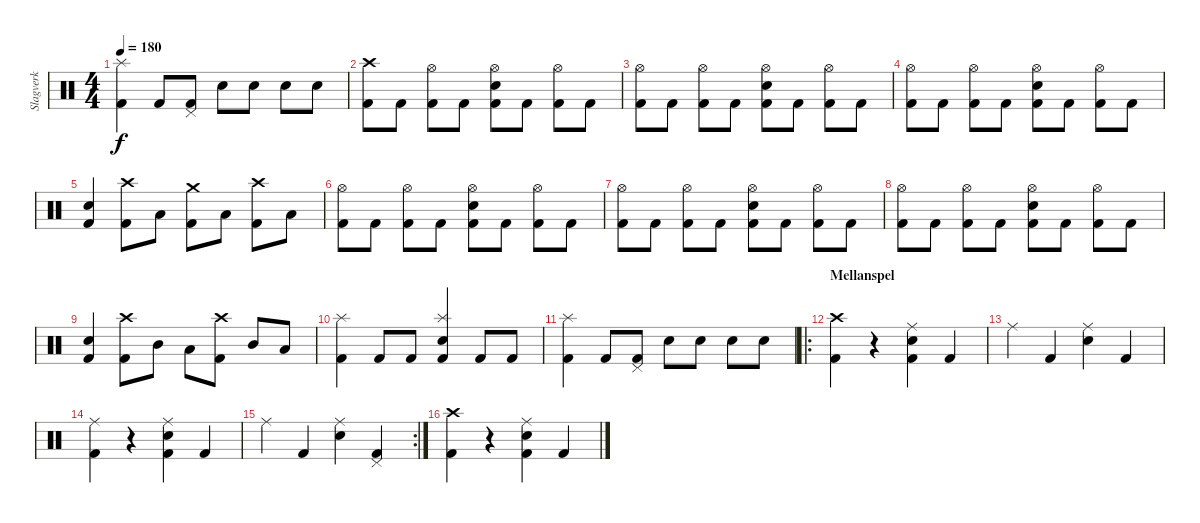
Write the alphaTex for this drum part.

\track ("Slagverk" "Slagverk") {instrument percussion}
\staff {score}
\articulation defaults
\ts (4 4)
\tempo 180
\clef neutral
\ks c
("Kick (hit) 2" "Splash (hit)").4{dy f} "Kick (hit) 2".8 ("Kick (hit) 2" "Pedal Hi-Hat (hit)").8 "Snare (hit) 2".8 "Snare (hit) 2".8 "Snare (hit) 2".8 "Snare (hit) 2".8 |
("Kick (hit) 2" "Crash high (hit)").8 "Kick (hit) 2".8 ("Kick (hit) 2" "Hi-Hat (open)").8 "Kick (hit) 2".8 ("Kick (hit) 2" "Snare (hit) 2" "Hi-Hat (open)").8 "Kick (hit) 2".8 ("Kick (hit) 2" "Hi-Hat (open)").8 "Kick (hit) 2".8 |
("Kick (hit) 2" "Hi-Hat (open)").8 "Kick (hit) 2".8 ("Kick (hit) 2" "Hi-Hat (open)").8 "Kick (hit) 2".8 ("Kick (hit) 2" "Snare (hit) 2" "Hi-Hat (open)").8 "Kick (hit) 2".8 ("Kick (hit) 2" "Hi-Hat (open)").8 "Kick (hit) 2".8 |
("Kick (hit) 2" "Hi-Hat (open)").8 "Kick (hit) 2".8 ("Kick (hit) 2" "Hi-Hat (open)").8 "Kick (hit) 2".8 ("Kick (hit) 2" "Snare (hit) 2" "Hi-Hat (open)").8 "Kick (hit) 2".8 ("Kick (hit) 2" "Hi-Hat (open)").8 "Kick (hit) 2".8 |
("Kick (hit) 2" "Snare (hit) 2").4 ("Kick (hit) 2" "Crash high (hit)").8 "Low Floor Tom (hit)".8 ("Kick (hit) 2" "Crash medium (hit)").8 "Low Floor Tom (hit)".8 ("Kick (hit) 2" "Crash high (hit)").8 "Low Floor Tom (hit)".8 |
("Kick (hit) 2" "Hi-Hat (open)").8 "Kick (hit) 2".8 ("Kick (hit) 2" "Hi-Hat (open)").8 "Kick (hit) 2".8 ("Kick (hit) 2" "Snare (hit) 2" "Hi-Hat (open)").8 "Kick (hit) 2".8 ("Kick (hit) 2" "Hi-Hat (open)").8 "Kick (hit) 2".8 |
("Kick (hit) 2" "Hi-Hat (open)").8 "Kick (hit) 2".8 ("Kick (hit) 2" "Hi-Hat (open)").8 "Kick (hit) 2".8 ("Kick (hit) 2" "Snare (hit) 2" "Hi-Hat (open)").8 "Kick (hit) 2".8 ("Kick (hit) 2" "Hi-Hat (open)").8 "Kick (hit) 2".8 |
("Kick (hit) 2" "Hi-Hat (open)").8 "Kick (hit) 2".8 ("Kick (hit) 2" "Hi-Hat (open)").8 "Kick (hit) 2".8 ("Kick (hit) 2" "Snare (hit) 2" "Hi-Hat (open)").8 "Kick (hit) 2".8 ("Kick (hit) 2" "Hi-Hat (open)").8 "Kick (hit) 2".8 |
("Kick (hit) 2" "Snare (hit) 2").4 ("Kick (hit) 2" "Crash high (hit)").8 "Mid Tom (hit)".8 "Low Tom (hit)".8 ("Kick (hit) 2" "Crash high (hit)").8 "Mid Tom (hit)".8 "Low Tom (hit)".8 |
("Kick (hit) 2" "Splash (hit)").4 "Kick (hit) 2".8 "Kick (hit) 2".8 ("Kick (hit) 2" "Snare (hit) 2" "Splash (hit)").4 "Kick (hit) 2".8 "Kick (hit) 2".8 |
("Kick (hit) 2" "Splash (hit)").4 "Kick (hit) 2".8 ("Kick (hit) 2" "Pedal Hi-Hat (hit)").8 "Snare (hit) 2".8 "Snare (hit) 2".8 "Snare (hit) 2".8 "Snare (hit) 2".8 |
\ro
\section ("" "Mellanspel")
("Kick (hit) 2" "Crash high (hit)").4 r.4 ("Kick (hit) 2" "Snare (hit) 2" "Ride (middle)").4 "Kick (hit) 2".4 |
"Ride (middle)".4 "Kick (hit) 2".4 ("Snare (hit) 2" "Ride (middle)").4 "Kick (hit) 2".4 |
("Kick (hit) 2" "Ride (middle)").4 r.4 ("Kick (hit) 2" "Snare (hit) 2" "Ride (middle)").4 "Kick (hit) 2".4 |
\rc 2 "Ride (middle)".4 "Kick (hit) 2".4
("Snare (hit) 2" "Ride (middle)").4 ("Kick (hit) 2" "Pedal Hi-Hat (hit)").4 |
("Kick (hit) 2" "Crash high (hit)").4 r.4 ("Kick (hit) 2" "Snare (hit) 2" "Ride (middle)").4 "Kick (hit) 2".4
